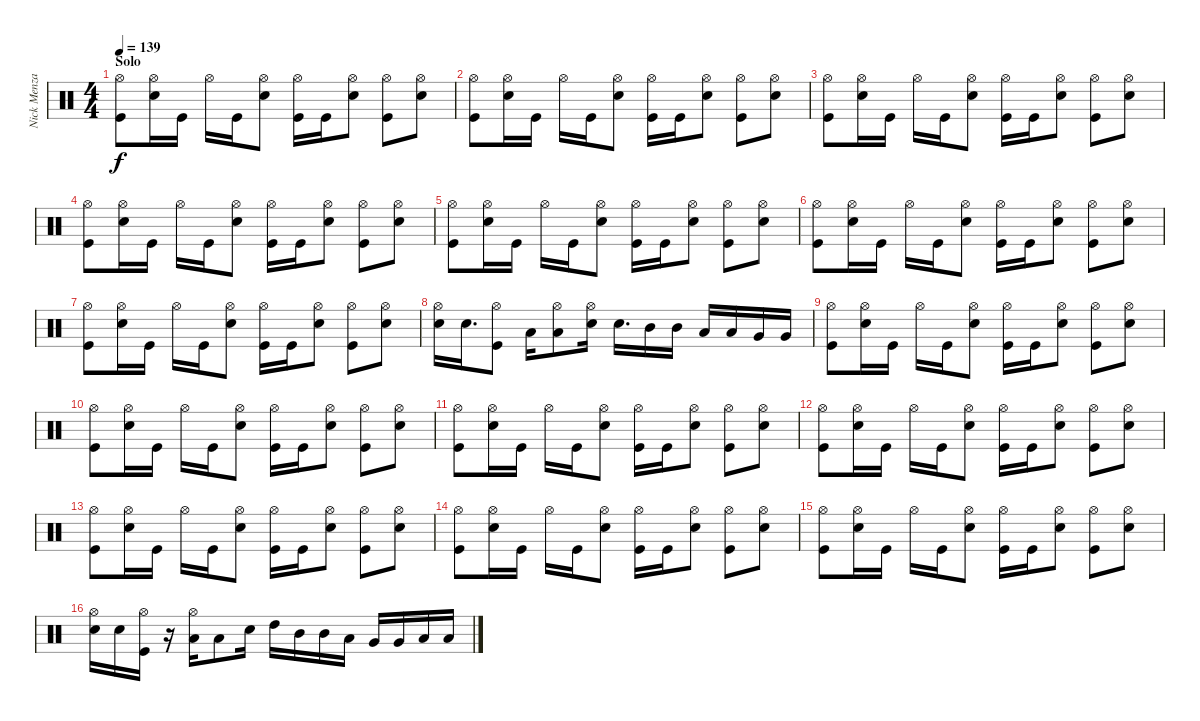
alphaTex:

\track ("Nick Menza" "Nick Menza") {instrument percussion}
\staff {score}
\articulation defaults
\ts (4 4)
\section ("" "Solo")
\tempo 139
\clef neutral
\ks c
("Hi-Hat (open)" "Kick (hit)").8{dy f} ("Hi-Hat (open)" "Snare (hit) 2").16 "Kick (hit)".16 "Hi-Hat (open)".16 "Kick (hit)".16 ("Hi-Hat (open)" "Snare (hit) 2").8 ("Hi-Hat (open)" "Kick (hit)").16 "Kick (hit)".16 ("Hi-Hat (open)" "Snare (hit) 2").8 ("Hi-Hat (open)" "Kick (hit)").8 ("Hi-Hat (open)" "Snare (hit) 2").8 |
("Hi-Hat (open)" "Kick (hit)").8 ("Hi-Hat (open)" "Snare (hit) 2").16 "Kick (hit)".16 "Hi-Hat (open)".16 "Kick (hit)".16 ("Hi-Hat (open)" "Snare (hit) 2").8 ("Hi-Hat (open)" "Kick (hit)").16 "Kick (hit)".16 ("Hi-Hat (open)" "Snare (hit) 2").8 ("Hi-Hat (open)" "Kick (hit)").8 ("Hi-Hat (open)" "Snare (hit) 2").8 |
("Hi-Hat (open)" "Kick (hit)").8 ("Hi-Hat (open)" "Snare (hit) 2").16 "Kick (hit)".16 "Hi-Hat (open)".16 "Kick (hit)".16 ("Hi-Hat (open)" "Snare (hit) 2").8 ("Hi-Hat (open)" "Kick (hit)").16 "Kick (hit)".16 ("Hi-Hat (open)" "Snare (hit) 2").8 ("Hi-Hat (open)" "Kick (hit)").8 ("Hi-Hat (open)" "Snare (hit) 2").8 |
("Hi-Hat (open)" "Kick (hit)").8 ("Hi-Hat (open)" "Snare (hit) 2").16 "Kick (hit)".16 "Hi-Hat (open)".16 "Kick (hit)".16 ("Hi-Hat (open)" "Snare (hit) 2").8 ("Hi-Hat (open)" "Kick (hit)").16 "Kick (hit)".16 ("Hi-Hat (open)" "Snare (hit) 2").8 ("Hi-Hat (open)" "Kick (hit)").8 ("Hi-Hat (open)" "Snare (hit) 2").8 |
("Hi-Hat (open)" "Kick (hit)").8 ("Hi-Hat (open)" "Snare (hit) 2").16 "Kick (hit)".16 "Hi-Hat (open)".16 "Kick (hit)".16 ("Hi-Hat (open)" "Snare (hit) 2").8 ("Hi-Hat (open)" "Kick (hit)").16 "Kick (hit)".16 ("Hi-Hat (open)" "Snare (hit) 2").8 ("Hi-Hat (open)" "Kick (hit)").8 ("Hi-Hat (open)" "Snare (hit) 2").8 |
("Hi-Hat (open)" "Kick (hit)").8 ("Hi-Hat (open)" "Snare (hit) 2").16 "Kick (hit)".16 "Hi-Hat (open)".16 "Kick (hit)".16 ("Hi-Hat (open)" "Snare (hit) 2").8 ("Hi-Hat (open)" "Kick (hit)").16 "Kick (hit)".16 ("Hi-Hat (open)" "Snare (hit) 2").8 ("Hi-Hat (open)" "Kick (hit)").8 ("Hi-Hat (open)" "Snare (hit) 2").8 |
("Hi-Hat (open)" "Kick (hit)").8 ("Hi-Hat (open)" "Snare (hit) 2").16 "Kick (hit)".16 "Hi-Hat (open)".16 "Kick (hit)".16 ("Hi-Hat (open)" "Snare (hit) 2").8 ("Hi-Hat (open)" "Kick (hit)").16 "Kick (hit)".16 ("Hi-Hat (open)" "Snare (hit) 2").8 ("Hi-Hat (open)" "Kick (hit)").8 ("Hi-Hat (open)" "Snare (hit) 2").8 |
("Hi-Hat (open)" "Snare (hit) 2").16 "Snare (hit) 2".16{d} ("Hi-Hat (open)" "Kick (hit)").8 "Low Floor Tom (hit)".16 ("Hi-Hat (open)" "Low Floor Tom (hit)").8 ("Hi-Hat (open)" "Snare (hit) 2").16 "Snare (hit) 2".16{d} "Mid Tom (hit)".16 "Mid Tom (hit)".16 "Low Tom (hit)".16 "Low Tom (hit)".16 "Very Low Tom (hit)".16 "Very Low Tom (hit)".16 |
("Hi-Hat (open)" "Kick (hit)").8 ("Hi-Hat (open)" "Snare (hit) 2").16 "Kick (hit)".16 "Hi-Hat (open)".16 "Kick (hit)".16 ("Hi-Hat (open)" "Snare (hit) 2").8 ("Hi-Hat (open)" "Kick (hit)").16 "Kick (hit)".16 ("Hi-Hat (open)" "Snare (hit) 2").8 ("Hi-Hat (open)" "Kick (hit)").8 ("Hi-Hat (open)" "Snare (hit) 2").8 |
("Hi-Hat (open)" "Kick (hit)").8 ("Hi-Hat (open)" "Snare (hit) 2").16 "Kick (hit)".16 "Hi-Hat (open)".16 "Kick (hit)".16 ("Hi-Hat (open)" "Snare (hit) 2").8 ("Hi-Hat (open)" "Kick (hit)").16 "Kick (hit)".16 ("Hi-Hat (open)" "Snare (hit) 2").8 ("Hi-Hat (open)" "Kick (hit)").8 ("Hi-Hat (open)" "Snare (hit) 2").8 |
("Hi-Hat (open)" "Kick (hit)").8 ("Hi-Hat (open)" "Snare (hit) 2").16 "Kick (hit)".16 "Hi-Hat (open)".16 "Kick (hit)".16 ("Hi-Hat (open)" "Snare (hit) 2").8 ("Hi-Hat (open)" "Kick (hit)").16 "Kick (hit)".16 ("Hi-Hat (open)" "Snare (hit) 2").8 ("Hi-Hat (open)" "Kick (hit)").8 ("Hi-Hat (open)" "Snare (hit) 2").8 |
("Hi-Hat (open)" "Kick (hit)").8 ("Hi-Hat (open)" "Snare (hit) 2").16 "Kick (hit)".16 "Hi-Hat (open)".16 "Kick (hit)".16 ("Hi-Hat (open)" "Snare (hit) 2").8 ("Hi-Hat (open)" "Kick (hit)").16 "Kick (hit)".16 ("Hi-Hat (open)" "Snare (hit) 2").8 ("Hi-Hat (open)" "Kick (hit)").8 ("Hi-Hat (open)" "Snare (hit) 2").8 |
("Hi-Hat (open)" "Kick (hit)").8 ("Hi-Hat (open)" "Snare (hit) 2").16 "Kick (hit)".16 "Hi-Hat (open)".16 "Kick (hit)".16 ("Hi-Hat (open)" "Snare (hit) 2").8 ("Hi-Hat (open)" "Kick (hit)").16 "Kick (hit)".16 ("Hi-Hat (open)" "Snare (hit) 2").8 ("Hi-Hat (open)" "Kick (hit)").8 ("Hi-Hat (open)" "Snare (hit) 2").8 |
("Hi-Hat (open)" "Kick (hit)").8 ("Hi-Hat (open)" "Snare (hit) 2").16 "Kick (hit)".16 "Hi-Hat (open)".16 "Kick (hit)".16 ("Hi-Hat (open)" "Snare (hit) 2").8 ("Hi-Hat (open)" "Kick (hit)").16 "Kick (hit)".16 ("Hi-Hat (open)" "Snare (hit) 2").8 ("Hi-Hat (open)" "Kick (hit)").8 ("Hi-Hat (open)" "Snare (hit) 2").8 |
("Hi-Hat (open)" "Kick (hit)").8 ("Hi-Hat (open)" "Snare (hit) 2").16 "Kick (hit)".16 "Hi-Hat (open)".16 "Kick (hit)".16 ("Hi-Hat (open)" "Snare (hit) 2").8 ("Hi-Hat (open)" "Kick (hit)").16 "Kick (hit)".16 ("Hi-Hat (open)" "Snare (hit) 2").8 ("Hi-Hat (open)" "Kick (hit)").8 ("Hi-Hat (open)" "Snare (hit) 2").8 |
("Hi-Hat (open)" "Snare (hit) 2").16 "Snare (hit) 2".16 ("Hi-Hat (open)" "Kick (hit)").16 r.16 ("Hi-Hat (open)" "Low Floor Tom (hit)").16 "Low Floor Tom (hit)".8 "Snare (hit) 2".16 "High Tom (hit)".16 "Mid Tom (hit)".16 "Mid Tom (hit)".16 "Low Tom (hit)".16 "Very Low Tom (hit)".16 "Very Low Tom (hit)".16 "Low Floor Tom (hit)".16 "Low Floor Tom (hit)".16
